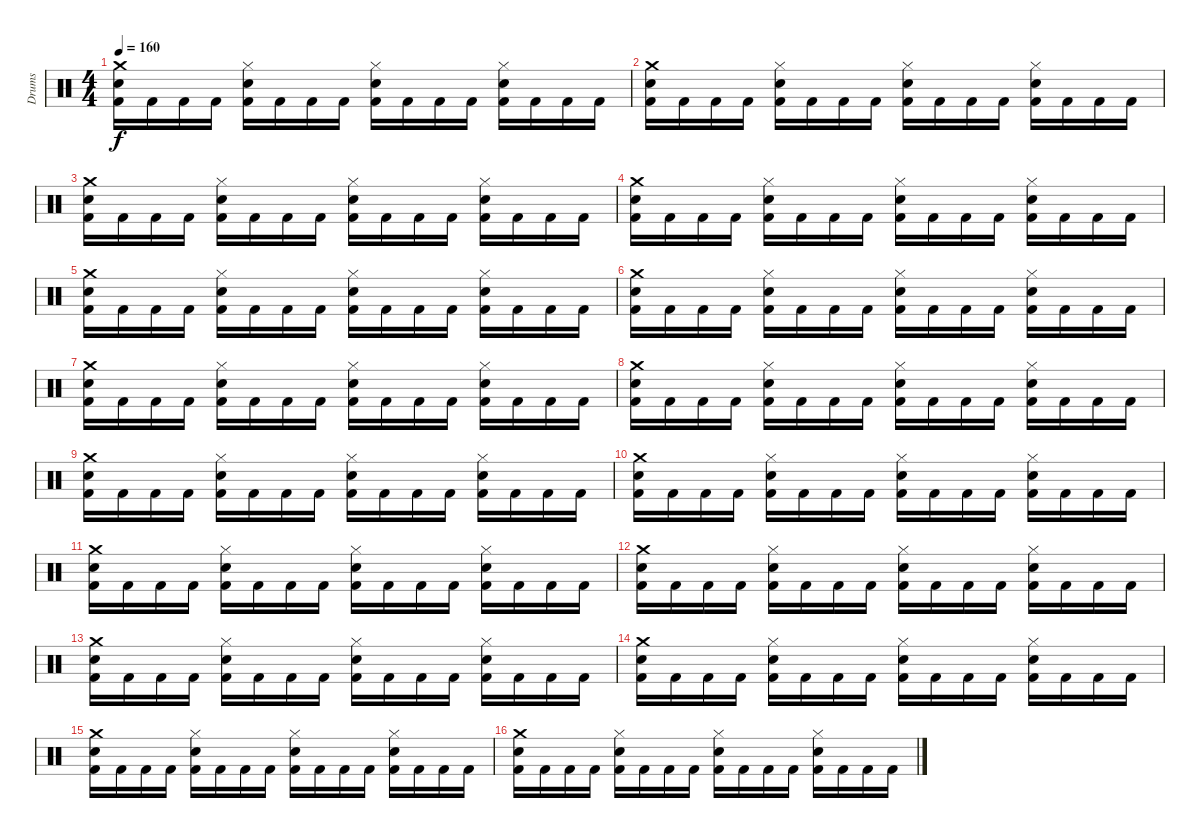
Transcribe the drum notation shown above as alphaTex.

\track ("Drums" "Drums") {instrument percussion}
\staff {score}
\articulation defaults
\ts (4 4)
\tempo 160
\clef neutral
\ks c
("Crash medium (hit)" "Snare (hit) 2" "Kick (hit) 2").16{dy f} "Kick (hit) 2".16 "Kick (hit) 2".16 "Kick (hit) 2".16 ("Hi-Hat (closed)" "Snare (hit) 2" "Kick (hit) 2").16 "Kick (hit) 2".16 "Kick (hit) 2".16 "Kick (hit) 2".16 ("Hi-Hat (closed)" "Snare (hit) 2" "Kick (hit) 2").16 "Kick (hit) 2".16 "Kick (hit) 2".16 "Kick (hit) 2".16 ("Hi-Hat (closed)" "Snare (hit) 2" "Kick (hit) 2").16 "Kick (hit) 2".16 "Kick (hit) 2".16 "Kick (hit) 2".16 |
("Crash medium (hit)" "Snare (hit) 2" "Kick (hit) 2").16 "Kick (hit) 2".16 "Kick (hit) 2".16 "Kick (hit) 2".16 ("Hi-Hat (closed)" "Snare (hit) 2" "Kick (hit) 2").16 "Kick (hit) 2".16 "Kick (hit) 2".16 "Kick (hit) 2".16 ("Hi-Hat (closed)" "Snare (hit) 2" "Kick (hit) 2").16 "Kick (hit) 2".16 "Kick (hit) 2".16 "Kick (hit) 2".16 ("Hi-Hat (closed)" "Snare (hit) 2" "Kick (hit) 2").16 "Kick (hit) 2".16 "Kick (hit) 2".16 "Kick (hit) 2".16 |
("Crash medium (hit)" "Snare (hit) 2" "Kick (hit) 2").16 "Kick (hit) 2".16 "Kick (hit) 2".16 "Kick (hit) 2".16 ("Hi-Hat (closed)" "Snare (hit) 2" "Kick (hit) 2").16 "Kick (hit) 2".16 "Kick (hit) 2".16 "Kick (hit) 2".16 ("Hi-Hat (closed)" "Snare (hit) 2" "Kick (hit) 2").16 "Kick (hit) 2".16 "Kick (hit) 2".16 "Kick (hit) 2".16 ("Hi-Hat (closed)" "Snare (hit) 2" "Kick (hit) 2").16 "Kick (hit) 2".16 "Kick (hit) 2".16 "Kick (hit) 2".16 |
("Crash medium (hit)" "Snare (hit) 2" "Kick (hit) 2").16 "Kick (hit) 2".16 "Kick (hit) 2".16 "Kick (hit) 2".16 ("Hi-Hat (closed)" "Snare (hit) 2" "Kick (hit) 2").16 "Kick (hit) 2".16 "Kick (hit) 2".16 "Kick (hit) 2".16 ("Hi-Hat (closed)" "Snare (hit) 2" "Kick (hit) 2").16 "Kick (hit) 2".16 "Kick (hit) 2".16 "Kick (hit) 2".16 ("Hi-Hat (closed)" "Snare (hit) 2" "Kick (hit) 2").16 "Kick (hit) 2".16 "Kick (hit) 2".16 "Kick (hit) 2".16 |
("Crash medium (hit)" "Snare (hit) 2" "Kick (hit) 2").16 "Kick (hit) 2".16 "Kick (hit) 2".16 "Kick (hit) 2".16 ("Hi-Hat (closed)" "Snare (hit) 2" "Kick (hit) 2").16 "Kick (hit) 2".16 "Kick (hit) 2".16 "Kick (hit) 2".16 ("Hi-Hat (closed)" "Snare (hit) 2" "Kick (hit) 2").16 "Kick (hit) 2".16 "Kick (hit) 2".16 "Kick (hit) 2".16 ("Hi-Hat (closed)" "Snare (hit) 2" "Kick (hit) 2").16 "Kick (hit) 2".16 "Kick (hit) 2".16 "Kick (hit) 2".16 |
("Crash medium (hit)" "Snare (hit) 2" "Kick (hit) 2").16 "Kick (hit) 2".16 "Kick (hit) 2".16 "Kick (hit) 2".16 ("Hi-Hat (closed)" "Snare (hit) 2" "Kick (hit) 2").16 "Kick (hit) 2".16 "Kick (hit) 2".16 "Kick (hit) 2".16 ("Hi-Hat (closed)" "Snare (hit) 2" "Kick (hit) 2").16 "Kick (hit) 2".16 "Kick (hit) 2".16 "Kick (hit) 2".16 ("Hi-Hat (closed)" "Snare (hit) 2" "Kick (hit) 2").16 "Kick (hit) 2".16 "Kick (hit) 2".16 "Kick (hit) 2".16 |
("Crash medium (hit)" "Snare (hit) 2" "Kick (hit) 2").16 "Kick (hit) 2".16 "Kick (hit) 2".16 "Kick (hit) 2".16 ("Hi-Hat (closed)" "Snare (hit) 2" "Kick (hit) 2").16 "Kick (hit) 2".16 "Kick (hit) 2".16 "Kick (hit) 2".16 ("Hi-Hat (closed)" "Snare (hit) 2" "Kick (hit) 2").16 "Kick (hit) 2".16 "Kick (hit) 2".16 "Kick (hit) 2".16 ("Hi-Hat (closed)" "Snare (hit) 2" "Kick (hit) 2").16 "Kick (hit) 2".16 "Kick (hit) 2".16 "Kick (hit) 2".16 |
("Crash medium (hit)" "Snare (hit) 2" "Kick (hit) 2").16 "Kick (hit) 2".16 "Kick (hit) 2".16 "Kick (hit) 2".16 ("Hi-Hat (closed)" "Snare (hit) 2" "Kick (hit) 2").16 "Kick (hit) 2".16 "Kick (hit) 2".16 "Kick (hit) 2".16 ("Hi-Hat (closed)" "Snare (hit) 2" "Kick (hit) 2").16 "Kick (hit) 2".16 "Kick (hit) 2".16 "Kick (hit) 2".16 ("Hi-Hat (closed)" "Snare (hit) 2" "Kick (hit) 2").16 "Kick (hit) 2".16 "Kick (hit) 2".16 "Kick (hit) 2".16 |
("Crash medium (hit)" "Snare (hit) 2" "Kick (hit) 2").16 "Kick (hit) 2".16 "Kick (hit) 2".16 "Kick (hit) 2".16 ("Hi-Hat (closed)" "Snare (hit) 2" "Kick (hit) 2").16 "Kick (hit) 2".16 "Kick (hit) 2".16 "Kick (hit) 2".16 ("Hi-Hat (closed)" "Snare (hit) 2" "Kick (hit) 2").16 "Kick (hit) 2".16 "Kick (hit) 2".16 "Kick (hit) 2".16 ("Hi-Hat (closed)" "Snare (hit) 2" "Kick (hit) 2").16 "Kick (hit) 2".16 "Kick (hit) 2".16 "Kick (hit) 2".16 |
("Crash medium (hit)" "Snare (hit) 2" "Kick (hit) 2").16 "Kick (hit) 2".16 "Kick (hit) 2".16 "Kick (hit) 2".16 ("Hi-Hat (closed)" "Snare (hit) 2" "Kick (hit) 2").16 "Kick (hit) 2".16 "Kick (hit) 2".16 "Kick (hit) 2".16 ("Hi-Hat (closed)" "Snare (hit) 2" "Kick (hit) 2").16 "Kick (hit) 2".16 "Kick (hit) 2".16 "Kick (hit) 2".16 ("Hi-Hat (closed)" "Snare (hit) 2" "Kick (hit) 2").16 "Kick (hit) 2".16 "Kick (hit) 2".16 "Kick (hit) 2".16 |
("Crash medium (hit)" "Snare (hit) 2" "Kick (hit) 2").16 "Kick (hit) 2".16 "Kick (hit) 2".16 "Kick (hit) 2".16 ("Hi-Hat (closed)" "Snare (hit) 2" "Kick (hit) 2").16 "Kick (hit) 2".16 "Kick (hit) 2".16 "Kick (hit) 2".16 ("Hi-Hat (closed)" "Snare (hit) 2" "Kick (hit) 2").16 "Kick (hit) 2".16 "Kick (hit) 2".16 "Kick (hit) 2".16 ("Hi-Hat (closed)" "Snare (hit) 2" "Kick (hit) 2").16 "Kick (hit) 2".16 "Kick (hit) 2".16 "Kick (hit) 2".16 |
("Crash medium (hit)" "Snare (hit) 2" "Kick (hit) 2").16 "Kick (hit) 2".16 "Kick (hit) 2".16 "Kick (hit) 2".16 ("Hi-Hat (closed)" "Snare (hit) 2" "Kick (hit) 2").16 "Kick (hit) 2".16 "Kick (hit) 2".16 "Kick (hit) 2".16 ("Hi-Hat (closed)" "Snare (hit) 2" "Kick (hit) 2").16 "Kick (hit) 2".16 "Kick (hit) 2".16 "Kick (hit) 2".16 ("Hi-Hat (closed)" "Snare (hit) 2" "Kick (hit) 2").16 "Kick (hit) 2".16 "Kick (hit) 2".16 "Kick (hit) 2".16 |
("Crash medium (hit)" "Snare (hit) 2" "Kick (hit) 2").16 "Kick (hit) 2".16 "Kick (hit) 2".16 "Kick (hit) 2".16 ("Hi-Hat (closed)" "Snare (hit) 2" "Kick (hit) 2").16 "Kick (hit) 2".16 "Kick (hit) 2".16 "Kick (hit) 2".16 ("Hi-Hat (closed)" "Snare (hit) 2" "Kick (hit) 2").16 "Kick (hit) 2".16 "Kick (hit) 2".16 "Kick (hit) 2".16 ("Hi-Hat (closed)" "Snare (hit) 2" "Kick (hit) 2").16 "Kick (hit) 2".16 "Kick (hit) 2".16 "Kick (hit) 2".16 |
("Crash medium (hit)" "Snare (hit) 2" "Kick (hit) 2").16 "Kick (hit) 2".16 "Kick (hit) 2".16 "Kick (hit) 2".16 ("Hi-Hat (closed)" "Snare (hit) 2" "Kick (hit) 2").16 "Kick (hit) 2".16 "Kick (hit) 2".16 "Kick (hit) 2".16 ("Hi-Hat (closed)" "Snare (hit) 2" "Kick (hit) 2").16 "Kick (hit) 2".16 "Kick (hit) 2".16 "Kick (hit) 2".16 ("Hi-Hat (closed)" "Snare (hit) 2" "Kick (hit) 2").16 "Kick (hit) 2".16 "Kick (hit) 2".16 "Kick (hit) 2".16 |
("Crash medium (hit)" "Snare (hit) 2" "Kick (hit) 2").16 "Kick (hit) 2".16 "Kick (hit) 2".16 "Kick (hit) 2".16 ("Hi-Hat (closed)" "Snare (hit) 2" "Kick (hit) 2").16 "Kick (hit) 2".16 "Kick (hit) 2".16 "Kick (hit) 2".16 ("Hi-Hat (closed)" "Snare (hit) 2" "Kick (hit) 2").16 "Kick (hit) 2".16 "Kick (hit) 2".16 "Kick (hit) 2".16 ("Hi-Hat (closed)" "Snare (hit) 2" "Kick (hit) 2").16 "Kick (hit) 2".16 "Kick (hit) 2".16 "Kick (hit) 2".16 |
("Crash medium (hit)" "Snare (hit) 2" "Kick (hit) 2").16 "Kick (hit) 2".16 "Kick (hit) 2".16 "Kick (hit) 2".16 ("Hi-Hat (closed)" "Snare (hit) 2" "Kick (hit) 2").16 "Kick (hit) 2".16 "Kick (hit) 2".16 "Kick (hit) 2".16 ("Hi-Hat (closed)" "Snare (hit) 2" "Kick (hit) 2").16 "Kick (hit) 2".16 "Kick (hit) 2".16 "Kick (hit) 2".16 ("Hi-Hat (closed)" "Snare (hit) 2" "Kick (hit) 2").16 "Kick (hit) 2".16 "Kick (hit) 2".16 "Kick (hit) 2".16
